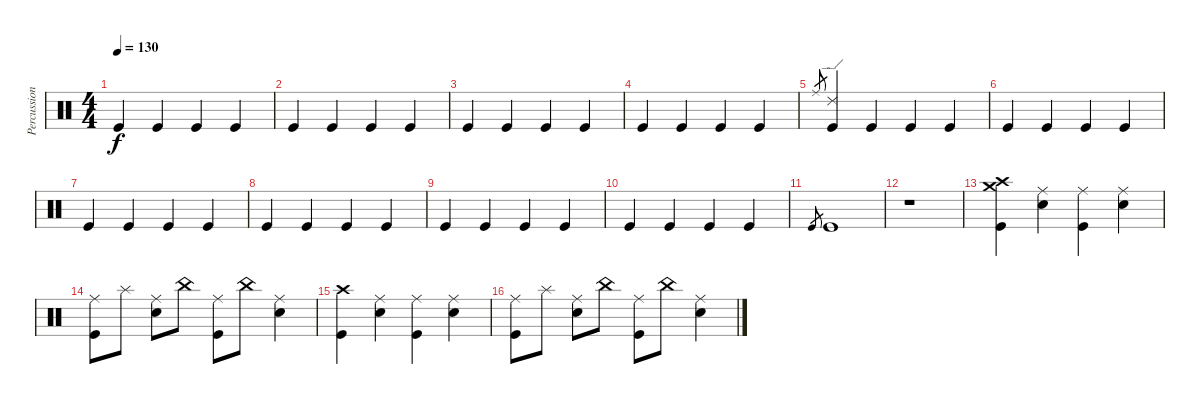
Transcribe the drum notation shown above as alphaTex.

\track ("Percussion" "Percussion") {instrument percussion}
\staff {score}
\articulation defaults
\ts (4 4)
\tempo 130
\clef neutral
\ks c "Kick (hit)".4{dy f} "Kick (hit)".4 "Kick (hit)".4 "Kick (hit)".4
|
"Kick (hit)".4 "Kick (hit)".4 "Kick (hit)".4 "Kick (hit)".4 |
"Kick (hit)".4 "Kick (hit)".4 "Kick (hit)".4 "Kick (hit)".4 |
"Kick (hit)".4 "Kick (hit)".4 "Kick (hit)".4 "Kick (hit)".4 |
"Ride (middle)".8{gr} ("Ride (edge) 2" "Kick (hit)").4 "Kick (hit)".4 "Kick (hit)".4 "Kick (hit)".4 |
"Kick (hit)".4 "Kick (hit)".4 "Kick (hit)".4 "Kick (hit)".4 |
"Kick (hit)".4 "Kick (hit)".4 "Kick (hit)".4 "Kick (hit)".4 |
"Kick (hit)".4 "Kick (hit)".4 "Kick (hit)".4 "Kick (hit)".4 |
"Kick (hit)".4 "Kick (hit)".4 "Kick (hit)".4 "Kick (hit)".4 |
"Kick (hit)".4 "Kick (hit)".4 "Kick (hit)".4 "Kick (hit)".4 |
"Kick (hit)".8{gr} "Kick (hit)".1 |
r.1 |
("Crash medium (hit)" "Crash high (hit)" "Kick (hit)").4 ("Ride (middle)" "Electric Snare (hit)").4 ("Ride (middle)" "Kick (hit)").4 ("Ride (middle)" "Electric Snare (hit)").4 |
("Ride (middle)" "Kick (hit)").8 "Splash (hit)".8 ("Ride (middle)" "Electric Snare (hit)").8 "China (hit)".8 ("Ride (middle)" "Kick (hit)").8 "China (hit)".8 ("Ride (middle)" "Electric Snare (hit)").4 |
("Crash high (hit)" "Kick (hit)").4 ("Ride (middle)" "Electric Snare (hit)").4 ("Ride (middle)" "Kick (hit)").4 ("Ride (middle)" "Electric Snare (hit)").4 |
("Ride (middle)" "Kick (hit)").8 "Splash (hit)".8 ("Ride (middle)" "Electric Snare (hit)").8 "China (hit)".8 ("Ride (middle)" "Kick (hit)").8 "China (hit)".8 ("Ride (middle)" "Electric Snare (hit)").4
